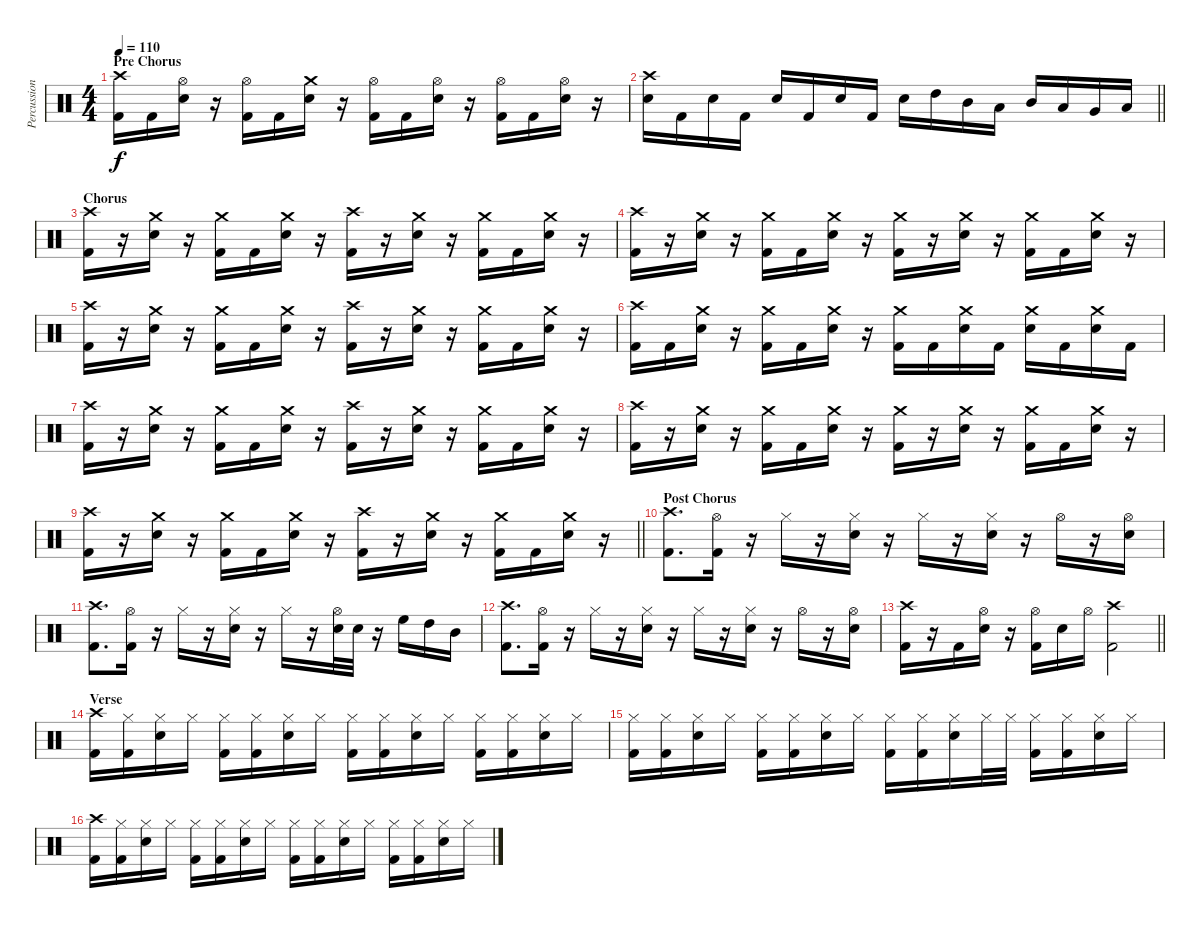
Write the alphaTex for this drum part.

\track ("Percussion" "Percussion") {instrument percussion}
\staff {score}
\articulation defaults
\ts (4 4)
\section ("" "Pre Chorus")
\tempo 110
\clef neutral
\ks c
("Crash high (hit)" "Kick (hit) 2").16{dy f} "Kick (hit) 2".16 ("Hi-Hat (open)" "Electric Snare (hit)").16 r.16 ("Hi-Hat (open)" "Kick (hit) 2").16 "Kick (hit) 2".16 ("Crash medium (hit)" "Electric Snare (hit)").16 r.16 ("Hi-Hat (open)" "Kick (hit) 2").16 "Kick (hit) 2".16 ("Hi-Hat (open)" "Electric Snare (hit)").16 r.16 ("Hi-Hat (open)" "Kick (hit) 2").16 "Kick (hit) 2".16 ("Hi-Hat (open)" "Electric Snare (hit)").16 r.16 |
\barLineRight lightlight
("Crash high (hit)" "Electric Snare (hit)").16 "Kick (hit) 2".16 "Electric Snare (hit)".16 "Kick (hit) 2".16 "Electric Snare (hit)".16 "Kick (hit) 2".16 "Electric Snare (hit)".16 "Kick (hit) 2".16 "Electric Snare (hit)".16 "High Tom (hit)".16 "Mid Tom (hit)".16 "Low Tom (hit)".16 "Mid Tom (hit)".16 "Low Tom (hit)".16 "Very Low Tom (hit)".16 "Low Floor Tom (hit)".16 |
\section ("" "Chorus")
("Crash high (hit)" "Kick (hit) 2").16 r.16 ("Crash medium (hit)" "Electric Snare (hit)").16 r.16 ("Crash medium (hit)" "Kick (hit) 2").16 "Kick (hit) 2".16 ("Crash medium (hit)" "Electric Snare (hit)").16 r.16 ("Crash high (hit)" "Kick (hit) 2").16 r.16 ("Crash medium (hit)" "Electric Snare (hit)").16 r.16 ("Crash medium (hit)" "Kick (hit) 2").16 "Kick (hit) 2".16 ("Crash medium (hit)" "Electric Snare (hit)").16 r.16 |
("Crash high (hit)" "Kick (hit) 2").16 r.16 ("Crash medium (hit)" "Electric Snare (hit)").16 r.16 ("Crash medium (hit)" "Kick (hit) 2").16 "Kick (hit) 2".16 ("Crash medium (hit)" "Electric Snare (hit)").16 r.16 ("Crash medium (hit)" "Kick (hit) 2").16 r.16 ("Crash medium (hit)" "Electric Snare (hit)").16 r.16 ("Crash medium (hit)" "Kick (hit) 2").16 "Kick (hit) 2".16 ("Crash medium (hit)" "Electric Snare (hit)").16 r.16 |
("Crash high (hit)" "Kick (hit) 2").16 r.16 ("Crash medium (hit)" "Electric Snare (hit)").16 r.16 ("Crash medium (hit)" "Kick (hit) 2").16 "Kick (hit) 2".16 ("Crash medium (hit)" "Electric Snare (hit)").16 r.16 ("Crash high (hit)" "Kick (hit) 2").16 r.16 ("Crash medium (hit)" "Electric Snare (hit)").16 r.16 ("Crash medium (hit)" "Kick (hit) 2").16 "Kick (hit) 2".16 ("Crash medium (hit)" "Electric Snare (hit)").16 r.16 |
("Crash high (hit)" "Kick (hit) 2").16 "Kick (hit) 2".16 ("Crash medium (hit)" "Electric Snare (hit)").16 r.16 ("Crash medium (hit)" "Kick (hit) 2").16 "Kick (hit) 2".16 ("Crash medium (hit)" "Electric Snare (hit)").16 r.16 ("Crash medium (hit)" "Kick (hit) 2").16 "Kick (hit) 2".16 ("Crash medium (hit)" "Electric Snare (hit)").16 "Kick (hit) 2".16 ("Crash medium (hit)" "Electric Snare (hit)").16 "Kick (hit) 2".16 ("Crash medium (hit)" "Electric Snare (hit)").16 "Kick (hit) 2".16 |
("Crash high (hit)" "Kick (hit) 2").16 r.16 ("Crash medium (hit)" "Electric Snare (hit)").16 r.16 ("Crash medium (hit)" "Kick (hit) 2").16 "Kick (hit) 2".16 ("Crash medium (hit)" "Electric Snare (hit)").16 r.16 ("Crash high (hit)" "Kick (hit) 2").16 r.16 ("Crash medium (hit)" "Electric Snare (hit)").16 r.16 ("Crash medium (hit)" "Kick (hit) 2").16 "Kick (hit) 2".16 ("Crash medium (hit)" "Electric Snare (hit)").16 r.16 |
("Crash high (hit)" "Kick (hit) 2").16 r.16 ("Crash medium (hit)" "Electric Snare (hit)").16 r.16 ("Crash medium (hit)" "Kick (hit) 2").16 "Kick (hit) 2".16 ("Crash medium (hit)" "Electric Snare (hit)").16 r.16 ("Crash medium (hit)" "Kick (hit) 2").16 r.16 ("Crash medium (hit)" "Electric Snare (hit)").16 r.16 ("Crash medium (hit)" "Kick (hit) 2").16 "Kick (hit) 2".16 ("Crash medium (hit)" "Electric Snare (hit)").16 r.16 |
\barLineRight lightlight
("Crash high (hit)" "Kick (hit) 2").16 r.16 ("Crash medium (hit)" "Electric Snare (hit)").16 r.16 ("Crash medium (hit)" "Kick (hit) 2").16 "Kick (hit) 2".16 ("Crash medium (hit)" "Electric Snare (hit)").16 r.16 ("Crash high (hit)" "Kick (hit) 2").16 r.16 ("Crash medium (hit)" "Electric Snare (hit)").16 r.16 ("Crash medium (hit)" "Kick (hit) 2").16 "Kick (hit) 2".16 ("Crash medium (hit)" "Electric Snare (hit)").16 r.16 |
\section ("" "Post Chorus")
("Crash high (hit)" "Kick (hit) 2").8{d} ("Hi-Hat (open)" "Kick (hit) 2").16 r.16 "Hi-Hat (closed)".16 r.16 ("Hi-Hat (closed)" "Electric Snare (hit)").16 r.16 "Hi-Hat (closed)".16 r.16 ("Hi-Hat (closed)" "Electric Snare (hit)").16 r.16 "Hi-Hat (open)".16 r.16 ("Hi-Hat (open)" "Electric Snare (hit)").16 |
("Crash high (hit)" "Kick (hit) 2").8{d} ("Hi-Hat (open)" "Kick (hit) 2").16 r.16 "Hi-Hat (closed)".16 r.16 ("Hi-Hat (closed)" "Electric Snare (hit)").16 r.16 "Hi-Hat (closed)".16 r.16 ("Hi-Hat (open)" "Electric Snare (hit)").32 "Electric Snare (hit)".32 r.16 "High Floor Tom (hit)".16 "High Tom (hit)".16 "Mid Tom (hit)".16 |
("Crash high (hit)" "Kick (hit) 2").8{d} ("Hi-Hat (open)" "Kick (hit) 2").16 r.16 "Hi-Hat (closed)".16 r.16 ("Hi-Hat (closed)" "Electric Snare (hit)").16 r.16 "Hi-Hat (closed)".16 r.16 ("Hi-Hat (closed)" "Electric Snare (hit)").16 r.16 "Hi-Hat (open)".16 r.16 ("Hi-Hat (open)" "Electric Snare (hit)").16 |
\barLineRight lightlight
("Crash high (hit)" "Kick (hit) 2").16 r.16 "Kick (hit) 2".16 ("Hi-Hat (open)" "Electric Snare (hit)").16 r.16 ("Hi-Hat (open)" "Kick (hit) 2").16 "Electric Snare (hit)".16 "Hi-Hat (open)".16 ("Crash high (hit)" "Kick (hit) 2").2 |
\section ("" "Verse")
("Crash high (hit)" "Kick (hit) 2").16 ("Hi-Hat (closed)" "Kick (hit) 2").16 ("Hi-Hat (closed)" "Electric Snare (hit)").16 "Hi-Hat (closed)".16 ("Hi-Hat (closed)" "Kick (hit) 2").16 ("Hi-Hat (closed)" "Kick (hit) 2").16 ("Hi-Hat (closed)" "Electric Snare (hit)").16 "Hi-Hat (closed)".16 ("Hi-Hat (closed)" "Kick (hit) 2").16 ("Hi-Hat (closed)" "Kick (hit) 2").16 ("Hi-Hat (closed)" "Electric Snare (hit)").16 "Hi-Hat (closed)".16 ("Hi-Hat (closed)" "Kick (hit) 2").16 ("Hi-Hat (closed)" "Kick (hit) 2").16 ("Hi-Hat (closed)" "Electric Snare (hit)").16 "Hi-Hat (closed)".16 |
("Hi-Hat (closed)" "Kick (hit) 2").16 ("Hi-Hat (closed)" "Kick (hit) 2").16 ("Hi-Hat (closed)" "Electric Snare (hit)").16 "Hi-Hat (closed)".16 ("Hi-Hat (closed)" "Kick (hit) 2").16 ("Hi-Hat (closed)" "Kick (hit) 2").16 ("Hi-Hat (closed)" "Electric Snare (hit)").16 "Hi-Hat (closed)".16 ("Hi-Hat (closed)" "Kick (hit) 2").16 ("Hi-Hat (closed)" "Kick (hit) 2").16 ("Hi-Hat (closed)" "Electric Snare (hit)").16 "Hi-Hat (closed)".32 "Hi-Hat (closed)".32 ("Hi-Hat (closed)" "Kick (hit) 2").16 ("Hi-Hat (closed)" "Kick (hit) 2").16 ("Hi-Hat (closed)" "Electric Snare (hit)").16 "Hi-Hat (closed)".16 |
("Crash high (hit)" "Kick (hit) 2").16 ("Hi-Hat (closed)" "Kick (hit) 2").16 ("Hi-Hat (closed)" "Electric Snare (hit)").16 "Hi-Hat (closed)".16 ("Hi-Hat (closed)" "Kick (hit) 2").16 ("Hi-Hat (closed)" "Kick (hit) 2").16 ("Hi-Hat (closed)" "Electric Snare (hit)").16 "Hi-Hat (closed)".16 ("Hi-Hat (closed)" "Kick (hit) 2").16 ("Hi-Hat (closed)" "Kick (hit) 2").16 ("Hi-Hat (closed)" "Electric Snare (hit)").16 "Hi-Hat (closed)".16 ("Hi-Hat (closed)" "Kick (hit) 2").16 ("Hi-Hat (closed)" "Kick (hit) 2").16 ("Hi-Hat (closed)" "Electric Snare (hit)").16 "Hi-Hat (closed)".16
